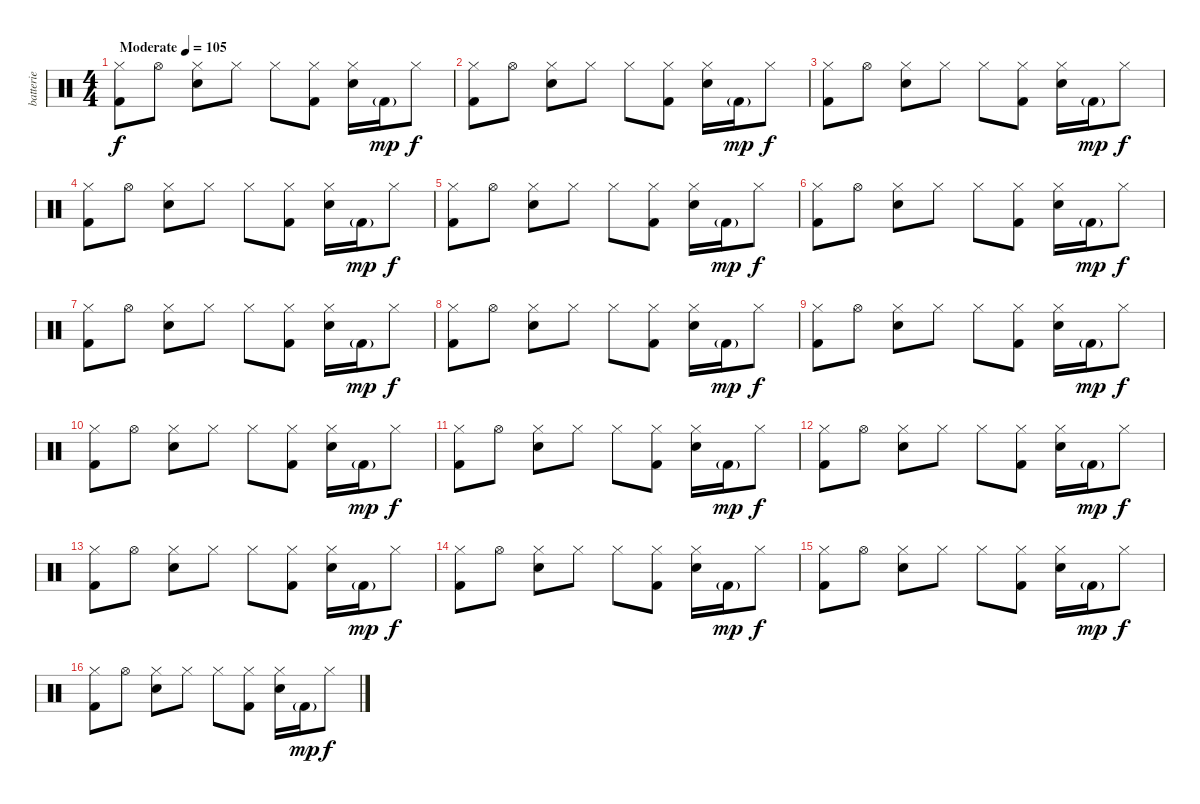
\track ("batterie" "batterie") {instrument percussion}
\staff {score}
\articulation defaults
\ts (4 4)
\tempo (105 "Moderate")
\clef neutral
\ks c
("Hi-Hat (closed)" "Kick (hit) 2").8{dy f} "Hi-Hat (open)".8 ("Hi-Hat (closed)" "Snare (hit) 2").8 "Hi-Hat (closed)".8 "Hi-Hat (closed)".8 ("Hi-Hat (closed)" "Kick (hit) 2").8 ("Hi-Hat (closed)" "Snare (hit) 2").16 "Kick (hit) 2"{g}.16{dy mp} "Hi-Hat (closed)".8{dy f} |
("Hi-Hat (closed)" "Kick (hit) 2").8 "Hi-Hat (open)".8 ("Hi-Hat (closed)" "Snare (hit) 2").8 "Hi-Hat (closed)".8 "Hi-Hat (closed)".8 ("Hi-Hat (closed)" "Kick (hit) 2").8 ("Hi-Hat (closed)" "Snare (hit) 2").16 "Kick (hit) 2"{g}.16{dy mp} "Hi-Hat (closed)".8{dy f} |
("Hi-Hat (closed)" "Kick (hit) 2").8 "Hi-Hat (open)".8 ("Hi-Hat (closed)" "Snare (hit) 2").8 "Hi-Hat (closed)".8 "Hi-Hat (closed)".8 ("Hi-Hat (closed)" "Kick (hit) 2").8 ("Hi-Hat (closed)" "Snare (hit) 2").16 "Kick (hit) 2"{g}.16{dy mp} "Hi-Hat (closed)".8{dy f} |
("Hi-Hat (closed)" "Kick (hit) 2").8 "Hi-Hat (open)".8 ("Hi-Hat (closed)" "Snare (hit) 2").8 "Hi-Hat (closed)".8 "Hi-Hat (closed)".8 ("Hi-Hat (closed)" "Kick (hit) 2").8 ("Hi-Hat (closed)" "Snare (hit) 2").16 "Kick (hit) 2"{g}.16{dy mp} "Hi-Hat (closed)".8{dy f} |
("Hi-Hat (closed)" "Kick (hit) 2").8 "Hi-Hat (open)".8 ("Hi-Hat (closed)" "Snare (hit) 2").8 "Hi-Hat (closed)".8 "Hi-Hat (closed)".8 ("Hi-Hat (closed)" "Kick (hit) 2").8 ("Hi-Hat (closed)" "Snare (hit) 2").16 "Kick (hit) 2"{g}.16{dy mp} "Hi-Hat (closed)".8{dy f} |
("Hi-Hat (closed)" "Kick (hit) 2").8 "Hi-Hat (open)".8 ("Hi-Hat (closed)" "Snare (hit) 2").8 "Hi-Hat (closed)".8 "Hi-Hat (closed)".8 ("Hi-Hat (closed)" "Kick (hit) 2").8 ("Hi-Hat (closed)" "Snare (hit) 2").16 "Kick (hit) 2"{g}.16{dy mp} "Hi-Hat (closed)".8{dy f} |
("Hi-Hat (closed)" "Kick (hit) 2").8 "Hi-Hat (open)".8 ("Hi-Hat (closed)" "Snare (hit) 2").8 "Hi-Hat (closed)".8 "Hi-Hat (closed)".8 ("Hi-Hat (closed)" "Kick (hit) 2").8 ("Hi-Hat (closed)" "Snare (hit) 2").16 "Kick (hit) 2"{g}.16{dy mp} "Hi-Hat (closed)".8{dy f} |
("Hi-Hat (closed)" "Kick (hit) 2").8 "Hi-Hat (open)".8 ("Hi-Hat (closed)" "Snare (hit) 2").8 "Hi-Hat (closed)".8 "Hi-Hat (closed)".8 ("Hi-Hat (closed)" "Kick (hit) 2").8 ("Hi-Hat (closed)" "Snare (hit) 2").16 "Kick (hit) 2"{g}.16{dy mp} "Hi-Hat (closed)".8{dy f} |
("Hi-Hat (closed)" "Kick (hit) 2").8 "Hi-Hat (open)".8 ("Hi-Hat (closed)" "Snare (hit) 2").8 "Hi-Hat (closed)".8 "Hi-Hat (closed)".8 ("Hi-Hat (closed)" "Kick (hit) 2").8 ("Hi-Hat (closed)" "Snare (hit) 2").16 "Kick (hit) 2"{g}.16{dy mp} "Hi-Hat (closed)".8{dy f} |
("Hi-Hat (closed)" "Kick (hit) 2").8 "Hi-Hat (open)".8 ("Hi-Hat (closed)" "Snare (hit) 2").8 "Hi-Hat (closed)".8 "Hi-Hat (closed)".8 ("Hi-Hat (closed)" "Kick (hit) 2").8 ("Hi-Hat (closed)" "Snare (hit) 2").16 "Kick (hit) 2"{g}.16{dy mp} "Hi-Hat (closed)".8{dy f} |
("Hi-Hat (closed)" "Kick (hit) 2").8 "Hi-Hat (open)".8 ("Hi-Hat (closed)" "Snare (hit) 2").8 "Hi-Hat (closed)".8 "Hi-Hat (closed)".8 ("Hi-Hat (closed)" "Kick (hit) 2").8 ("Hi-Hat (closed)" "Snare (hit) 2").16 "Kick (hit) 2"{g}.16{dy mp} "Hi-Hat (closed)".8{dy f} |
("Hi-Hat (closed)" "Kick (hit) 2").8 "Hi-Hat (open)".8 ("Hi-Hat (closed)" "Snare (hit) 2").8 "Hi-Hat (closed)".8 "Hi-Hat (closed)".8 ("Hi-Hat (closed)" "Kick (hit) 2").8 ("Hi-Hat (closed)" "Snare (hit) 2").16 "Kick (hit) 2"{g}.16{dy mp} "Hi-Hat (closed)".8{dy f} |
("Hi-Hat (closed)" "Kick (hit) 2").8 "Hi-Hat (open)".8 ("Hi-Hat (closed)" "Snare (hit) 2").8 "Hi-Hat (closed)".8 "Hi-Hat (closed)".8 ("Hi-Hat (closed)" "Kick (hit) 2").8 ("Hi-Hat (closed)" "Snare (hit) 2").16 "Kick (hit) 2"{g}.16{dy mp} "Hi-Hat (closed)".8{dy f} |
("Hi-Hat (closed)" "Kick (hit) 2").8 "Hi-Hat (open)".8 ("Hi-Hat (closed)" "Snare (hit) 2").8 "Hi-Hat (closed)".8 "Hi-Hat (closed)".8 ("Hi-Hat (closed)" "Kick (hit) 2").8 ("Hi-Hat (closed)" "Snare (hit) 2").16 "Kick (hit) 2"{g}.16{dy mp} "Hi-Hat (closed)".8{dy f} |
("Hi-Hat (closed)" "Kick (hit) 2").8 "Hi-Hat (open)".8 ("Hi-Hat (closed)" "Snare (hit) 2").8 "Hi-Hat (closed)".8 "Hi-Hat (closed)".8 ("Hi-Hat (closed)" "Kick (hit) 2").8 ("Hi-Hat (closed)" "Snare (hit) 2").16 "Kick (hit) 2"{g}.16{dy mp} "Hi-Hat (closed)".8{dy f} |
("Hi-Hat (closed)" "Kick (hit) 2").8 "Hi-Hat (open)".8 ("Hi-Hat (closed)" "Snare (hit) 2").8 "Hi-Hat (closed)".8 "Hi-Hat (closed)".8 ("Hi-Hat (closed)" "Kick (hit) 2").8 ("Hi-Hat (closed)" "Snare (hit) 2").16 "Kick (hit) 2"{g}.16{dy mp} "Hi-Hat (closed)".8{dy f}
